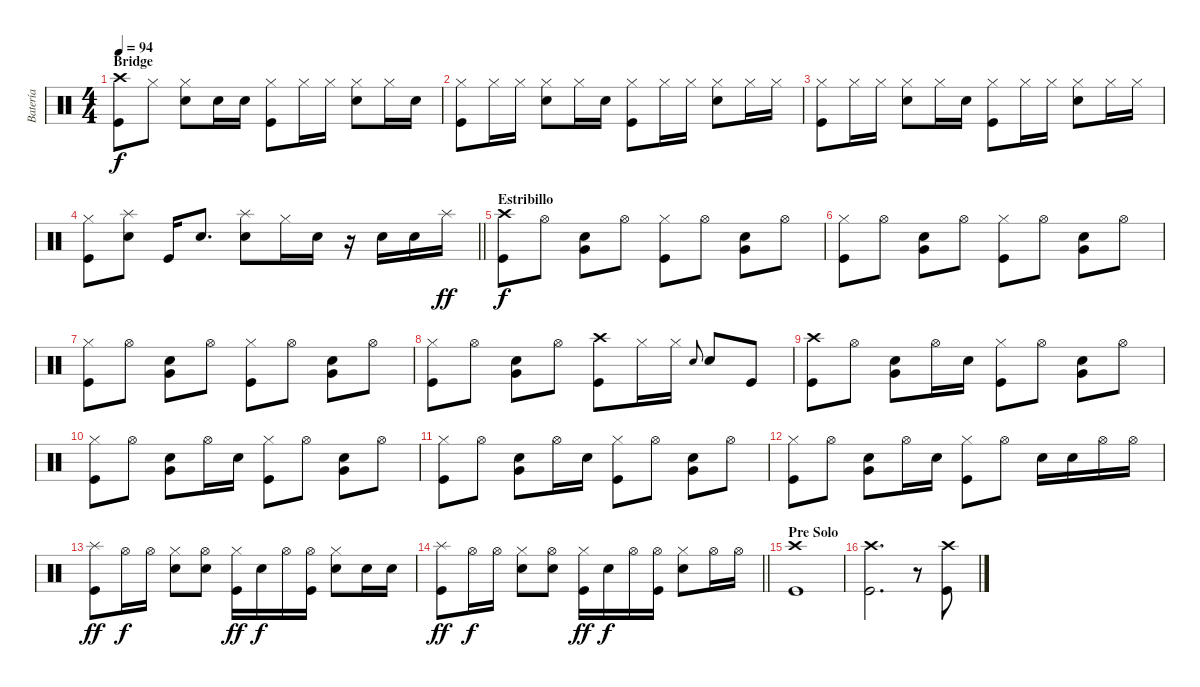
\track ("Batería" "Batería") {instrument percussion}
\staff {score}
\articulation defaults
\ts (4 4)
\section ("" "Bridge")
\tempo 94
\clef neutral
\ks c
("Crash high (hit)" "Kick (hit)").8{dy f} "Hi-Hat (closed)".8 ("Hi-Hat (closed)" "Snare (hit) 2").8 "Snare (hit) 2".16 "Snare (hit) 2".16 ("Hi-Hat (closed)" "Kick (hit)").8 "Hi-Hat (closed)".16 "Hi-Hat (closed)".16 ("Hi-Hat (closed)" "Snare (hit) 2").8 "Hi-Hat (closed)".16 "Snare (hit) 2".16 |
("Hi-Hat (closed)" "Kick (hit)").8 "Hi-Hat (closed)".16 "Hi-Hat (closed)".16 ("Hi-Hat (closed)" "Snare (hit) 2").8 "Hi-Hat (closed)".16 "Snare (hit) 2".16 ("Hi-Hat (closed)" "Kick (hit)").8 "Hi-Hat (closed)".16 "Hi-Hat (closed)".16 ("Hi-Hat (closed)" "Snare (hit) 2").8 "Hi-Hat (closed)".16 "Hi-Hat (closed)".16 |
("Hi-Hat (closed)" "Kick (hit)").8 "Hi-Hat (closed)".16 "Hi-Hat (closed)".16 ("Hi-Hat (closed)" "Snare (hit) 2").8 "Hi-Hat (closed)".16 "Snare (hit) 2".16 ("Hi-Hat (closed)" "Kick (hit)").8 "Hi-Hat (closed)".16 "Hi-Hat (closed)".16 ("Hi-Hat (closed)" "Snare (hit) 2").8 "Hi-Hat (closed)".16 "Hi-Hat (closed)".16 |
\barLineRight lightlight
("Hi-Hat (closed)" "Kick (hit)").8 ("Splash (hit)" "Snare (hit) 2").8 "Kick (hit)".16 "Snare (hit) 2".8{d} ("Splash (hit)" "Snare (hit) 2").8 "Hi-Hat (closed)".16 "Snare (hit) 2".16 r.16 "Snare (hit) 2".16 "Snare (hit) 2".16 "Splash (hit)".16{dy ff} |
\section ("" "Estribillo")
("Crash high (hit)" "Kick (hit)").8{dy f} "Hi-Hat (open)".8 ("Snare (hit) 2" "Very Low Tom (hit)").8 "Hi-Hat (open)".8 ("Hi-Hat (closed)" "Kick (hit)").8 "Hi-Hat (open)".8 ("Snare (hit) 2" "Very Low Tom (hit)").8 "Hi-Hat (open)".8 |
("Hi-Hat (closed)" "Kick (hit)").8 "Hi-Hat (open)".8 ("Snare (hit) 2" "Very Low Tom (hit)").8 "Hi-Hat (open)".8 ("Hi-Hat (closed)" "Kick (hit)").8 "Hi-Hat (open)".8 ("Snare (hit) 2" "Very Low Tom (hit)").8 "Hi-Hat (open)".8 |
("Hi-Hat (closed)" "Kick (hit)").8 "Hi-Hat (open)".8 ("Snare (hit) 2" "Very Low Tom (hit)").8 "Hi-Hat (open)".8 ("Hi-Hat (closed)" "Kick (hit)").8 "Hi-Hat (open)".8 ("Snare (hit) 2" "Very Low Tom (hit)").8 "Hi-Hat (open)".8 |
("Hi-Hat (closed)" "Kick (hit)").8 "Hi-Hat (open)".8 ("Snare (hit) 2" "Very Low Tom (hit)").8 "Hi-Hat (open)".8 ("Crash high (hit)" "Kick (hit)").8 "Hi-Hat (closed)".16 "Hi-Hat (closed)".16 "Snare (hit) 2".8{gr onbeat} "Snare (hit) 2".8 "Kick (hit)".8 |
("Crash high (hit)" "Kick (hit)").8 "Hi-Hat (open)".8 ("Snare (hit) 2" "Very Low Tom (hit)").8 "Hi-Hat (open)".16 "Snare (hit) 2".16 ("Hi-Hat (closed)" "Kick (hit)").8 "Hi-Hat (open)".8 ("Snare (hit) 2" "Very Low Tom (hit)").8 "Hi-Hat (open)".8 |
("Hi-Hat (closed)" "Kick (hit)").8 "Hi-Hat (open)".8 ("Snare (hit) 2" "Very Low Tom (hit)").8 "Hi-Hat (open)".16 "Snare (hit) 2".16 ("Hi-Hat (closed)" "Kick (hit)").8 "Hi-Hat (open)".8 ("Snare (hit) 2" "Very Low Tom (hit)").8 "Hi-Hat (open)".8 |
("Hi-Hat (closed)" "Kick (hit)").8 "Hi-Hat (open)".8 ("Snare (hit) 2" "Very Low Tom (hit)").8 "Hi-Hat (open)".16 "Snare (hit) 2".16 ("Hi-Hat (closed)" "Kick (hit)").8 "Hi-Hat (open)".8 ("Snare (hit) 2" "Very Low Tom (hit)").8 "Hi-Hat (open)".8 |
("Hi-Hat (closed)" "Kick (hit)").8 "Hi-Hat (open)".8 ("Snare (hit) 2" "Very Low Tom (hit)").8 "Hi-Hat (open)".16 "Snare (hit) 2".16 ("Hi-Hat (closed)" "Kick (hit)").8 "Hi-Hat (open)".8 "Snare (hit) 2".16 "Snare (hit) 2".16 "Hi-Hat (open)".16 "Hi-Hat (open)".16 |
("Splash (hit)" "Kick (hit)").8{dy ff} "Hi-Hat (open)".16{dy f} "Hi-Hat (open)".16 ("Hi-Hat (closed)" "Snare (hit) 2").8 ("Hi-Hat (open)" "Snare (hit) 2").8 ("Hi-Hat (closed)" "Kick (hit)").16{dy ff} "Snare (hit) 2".16{dy f} "Hi-Hat (open)".16 ("Hi-Hat (open)" "Kick (hit)").16 ("Hi-Hat (closed)" "Snare (hit) 2").8 "Snare (hit) 2".16 "Snare (hit) 2".16 |
\barLineRight lightlight
("Splash (hit)" "Kick (hit)").8{dy ff} "Hi-Hat (open)".16{dy f} "Hi-Hat (open)".16 ("Hi-Hat (closed)" "Snare (hit) 2").8 ("Hi-Hat (open)" "Snare (hit) 2").8 ("Hi-Hat (closed)" "Kick (hit)").16{dy ff} "Snare (hit) 2".16{dy f} "Hi-Hat (open)".16 ("Hi-Hat (open)" "Kick (hit)").16 ("Hi-Hat (closed)" "Snare (hit) 2").8 "Hi-Hat (open)".16 "Hi-Hat (open)".16 |
\section ("" "Pre Solo")
("Crash high (hit)" "Kick (hit)").1 |
("Crash high (hit)" "Kick (hit)").2{d} r.8 ("Crash high (hit)" "Kick (hit)").8
